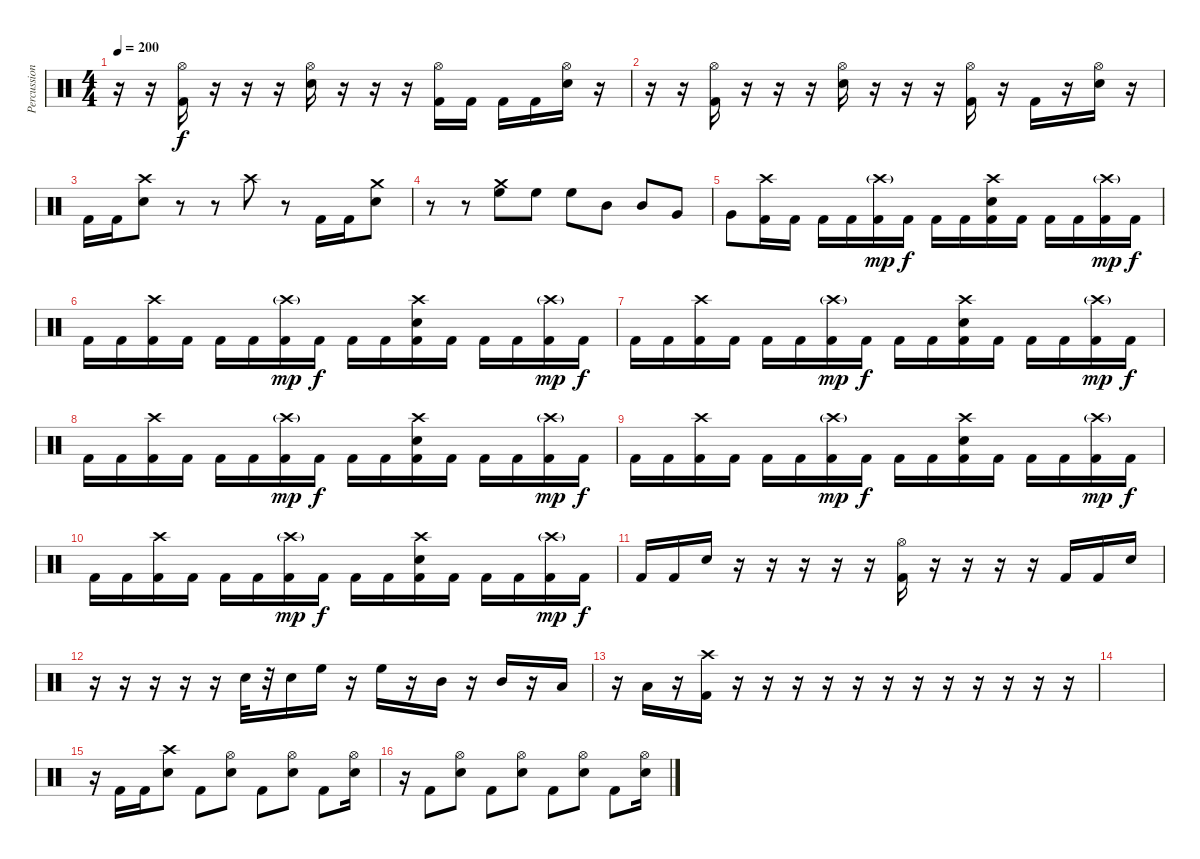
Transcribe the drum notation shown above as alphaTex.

\track ("Percussion" "Percussion") {instrument percussion}
\staff {score}
\articulation defaults
\ts (4 4)
\tempo 200
\clef neutral
\ks c
r.16{dy f} r.16 ("Hi-Hat (open)" "Kick (hit) 2").16 r.16 r.16 r.16 ("Hi-Hat (open)" "Snare (hit) 2").16 r.16 r.16 r.16 ("Hi-Hat (open)" "Kick (hit) 2").16 "Kick (hit) 2".16 "Kick (hit) 2".16 "Kick (hit) 2".16 ("Hi-Hat (open)" "Snare (hit) 2").16 r.16 |
r.16 r.16 ("Hi-Hat (open)" "Kick (hit) 2").16 r.16 r.16 r.16 ("Hi-Hat (open)" "Snare (hit) 2").16 r.16 r.16 r.16 ("Hi-Hat (open)" "Kick (hit) 2").16 r.16 "Kick (hit) 2".16 r.16 ("Hi-Hat (open)" "Snare (hit) 2").16 r.16 |
"Kick (hit) 2".16 "Kick (hit) 2".16 ("Crash high (hit)" "Snare (hit) 2").8 r.8 r.8 "Crash high (hit)".8 r.8 "Kick (hit) 2".16 "Kick (hit) 2".16 ("Crash medium (hit)" "Snare (hit) 2").8 |
r.8 r.8 ("Crash medium (hit)" "High Floor Tom (hit)").8 "High Floor Tom (hit)".8 "High Floor Tom (hit)".8 "Mid Tom (hit)".8 "Mid Tom (hit)".8 "Very Low Tom (hit)".8 |
"Very Low Tom (hit)".8 ("Crash high (hit)" "Kick (hit) 2").16 "Kick (hit) 2".16 "Kick (hit) 2".16 "Kick (hit) 2".16 ("Crash high (hit)"{g} "Kick (hit) 2").16{dy mp} "Kick (hit) 2".16{dy f} "Kick (hit) 2".16 "Kick (hit) 2".16 ("Crash high (hit)" "Snare (hit) 2" "Kick (hit) 2").16 "Kick (hit) 2".16 "Kick (hit) 2".16 "Kick (hit) 2".16 ("Crash high (hit)"{g} "Kick (hit) 2").16{dy mp} "Kick (hit) 2".16{dy f} |
"Kick (hit) 2".16 "Kick (hit) 2".16 ("Crash high (hit)" "Kick (hit) 2").16 "Kick (hit) 2".16 "Kick (hit) 2".16 "Kick (hit) 2".16 ("Crash high (hit)"{g} "Kick (hit) 2").16{dy mp} "Kick (hit) 2".16{dy f} "Kick (hit) 2".16 "Kick (hit) 2".16 ("Crash high (hit)" "Snare (hit) 2" "Kick (hit) 2").16 "Kick (hit) 2".16 "Kick (hit) 2".16 "Kick (hit) 2".16 ("Crash high (hit)"{g} "Kick (hit) 2").16{dy mp} "Kick (hit) 2".16{dy f} |
"Kick (hit) 2".16 "Kick (hit) 2".16 ("Crash high (hit)" "Kick (hit) 2").16 "Kick (hit) 2".16 "Kick (hit) 2".16 "Kick (hit) 2".16 ("Crash high (hit)"{g} "Kick (hit) 2").16{dy mp} "Kick (hit) 2".16{dy f} "Kick (hit) 2".16 "Kick (hit) 2".16 ("Crash high (hit)" "Snare (hit) 2" "Kick (hit) 2").16 "Kick (hit) 2".16 "Kick (hit) 2".16 "Kick (hit) 2".16 ("Crash high (hit)"{g} "Kick (hit) 2").16{dy mp} "Kick (hit) 2".16{dy f} |
"Kick (hit) 2".16 "Kick (hit) 2".16 ("Crash high (hit)" "Kick (hit) 2").16 "Kick (hit) 2".16 "Kick (hit) 2".16 "Kick (hit) 2".16 ("Crash high (hit)"{g} "Kick (hit) 2").16{dy mp} "Kick (hit) 2".16{dy f} "Kick (hit) 2".16 "Kick (hit) 2".16 ("Crash high (hit)" "Snare (hit) 2" "Kick (hit) 2").16 "Kick (hit) 2".16 "Kick (hit) 2".16 "Kick (hit) 2".16 ("Crash high (hit)"{g} "Kick (hit) 2").16{dy mp} "Kick (hit) 2".16{dy f} |
"Kick (hit) 2".16 "Kick (hit) 2".16 ("Crash high (hit)" "Kick (hit) 2").16 "Kick (hit) 2".16 "Kick (hit) 2".16 "Kick (hit) 2".16 ("Crash high (hit)"{g} "Kick (hit) 2").16{dy mp} "Kick (hit) 2".16{dy f} "Kick (hit) 2".16 "Kick (hit) 2".16 ("Crash high (hit)" "Snare (hit) 2" "Kick (hit) 2").16 "Kick (hit) 2".16 "Kick (hit) 2".16 "Kick (hit) 2".16 ("Crash high (hit)"{g} "Kick (hit) 2").16{dy mp} "Kick (hit) 2".16{dy f} |
"Kick (hit) 2".16 "Kick (hit) 2".16 ("Crash high (hit)" "Kick (hit) 2").16 "Kick (hit) 2".16 "Kick (hit) 2".16 "Kick (hit) 2".16 ("Crash high (hit)"{g} "Kick (hit) 2").16{dy mp} "Kick (hit) 2".16{dy f} "Kick (hit) 2".16 "Kick (hit) 2".16 ("Crash high (hit)" "Snare (hit) 2" "Kick (hit) 2").16 "Kick (hit) 2".16 "Kick (hit) 2".16 "Kick (hit) 2".16 ("Crash high (hit)"{g} "Kick (hit) 2").16{dy mp} "Kick (hit) 2".16{dy f} |
"Kick (hit) 2".16 "Kick (hit) 2".16 "Snare (hit) 2".16 r.16 r.16 r.16 r.16 r.16 ("Hi-Hat (open)" "Kick (hit) 2").16 r.16 r.16 r.16 r.16 "Kick (hit) 2".16 "Kick (hit) 2".16 "Snare (hit) 2".16 |
r.16 r.16 r.16 r.16 r.16 "Snare (hit) 2".32 r.32 "Snare (hit) 2".16 "High Floor Tom (hit)".16 r.16 "High Floor Tom (hit)".16 r.16 "Mid Tom (hit)".16 r.16 "Mid Tom (hit)".16 r.16 "Low Tom (hit)".16 |
r.16 "Low Tom (hit)".16 r.16 ("Crash high (hit)" "Kick (hit) 2").16 r.16 r.16 r.16 r.16 r.16 r.16 r.16 r.16 r.16 r.16 r.16 r.16 |
|
r.16 "Kick (hit) 2".16 "Kick (hit) 2".16 ("Crash high (hit)" "Snare (hit) 2").8 "Kick (hit) 2".8 ("Hi-Hat (open)" "Snare (hit) 2").8 "Kick (hit) 2".8 ("Hi-Hat (open)" "Snare (hit) 2").8 "Kick (hit) 2".8 ("Hi-Hat (open)" "Snare (hit) 2").16 |
r.16 "Kick (hit) 2".8 ("Hi-Hat (open)" "Snare (hit) 2").8 "Kick (hit) 2".8 ("Hi-Hat (open)" "Snare (hit) 2").8 "Kick (hit) 2".8 ("Hi-Hat (open)" "Snare (hit) 2").8 "Kick (hit) 2".8 ("Hi-Hat (open)" "Snare (hit) 2").16
